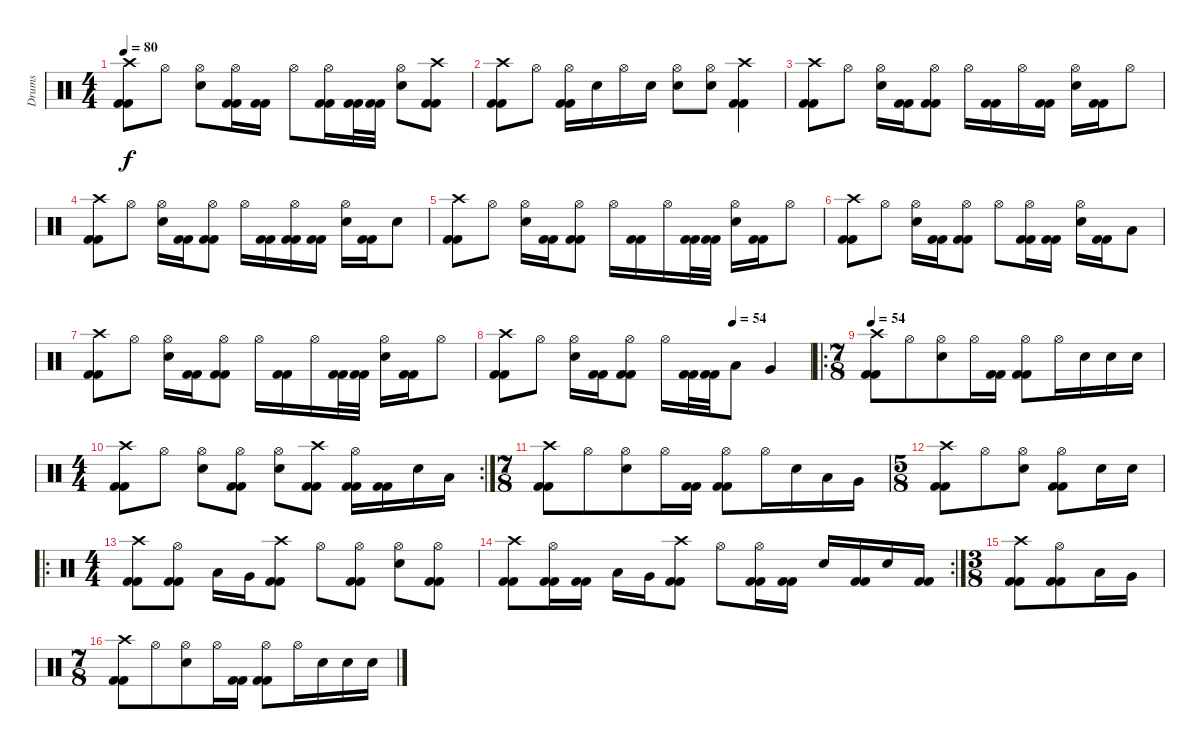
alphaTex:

\track ("Drums" "Drums") {instrument percussion}
\staff {score}
\articulation defaults
\ts (4 4)
\tempo 80
\clef neutral
\ks c
("Kick (hit) 2" "Kick (hit) 2" "Crash high (hit)").8{dy f} "Hi-Hat (open)".8 ("Snare (hit) 2" "Hi-Hat (open)").8 ("Kick (hit) 2" "Kick (hit) 2" "Hi-Hat (open)").16 ("Kick (hit) 2" "Kick (hit) 2").16 "Hi-Hat (open)".8 ("Kick (hit) 2" "Kick (hit) 2" "Hi-Hat (open)").16 ("Kick (hit) 2" "Kick (hit) 2").32 ("Kick (hit) 2" "Kick (hit) 2").32 ("Snare (hit) 2" "Hi-Hat (open)").8 ("Kick (hit) 2" "Kick (hit) 2" "Crash high (hit)").8 |
("Kick (hit) 2" "Kick (hit) 2" "Crash high (hit)").8 "Hi-Hat (open)".8 ("Kick (hit) 2" "Kick (hit) 2" "Hi-Hat (open)").16 "Snare (hit) 2".16 "Hi-Hat (open)".16 "Snare (hit) 2".16 ("Snare (hit) 2" "Hi-Hat (open)").8 ("Snare (hit) 2" "Hi-Hat (open)").8 ("Kick (hit) 2" "Kick (hit) 2" "Crash high (hit)").4 |
("Kick (hit) 2" "Kick (hit) 2" "Crash high (hit)").8 "Hi-Hat (open)".8 ("Snare (hit) 2" "Hi-Hat (open)").16 ("Kick (hit) 2" "Kick (hit) 2").16 ("Kick (hit) 2" "Kick (hit) 2" "Hi-Hat (open)").8 "Hi-Hat (open)".16 ("Kick (hit) 2" "Kick (hit) 2").16 "Hi-Hat (open)".16 ("Kick (hit) 2" "Kick (hit) 2").16 ("Snare (hit) 2" "Hi-Hat (open)").16 ("Kick (hit) 2" "Kick (hit) 2").16 "Hi-Hat (open)".8 |
("Kick (hit) 2" "Kick (hit) 2" "Crash high (hit)").8 "Hi-Hat (open)".8 ("Snare (hit) 2" "Hi-Hat (open)").16 ("Kick (hit) 2" "Kick (hit) 2").16 ("Kick (hit) 2" "Kick (hit) 2" "Hi-Hat (open)").8 "Hi-Hat (open)".16 ("Kick (hit) 2" "Kick (hit) 2").16 ("Kick (hit) 2" "Kick (hit) 2" "Hi-Hat (open)").16 ("Kick (hit) 2" "Kick (hit) 2").16 ("Snare (hit) 2" "Hi-Hat (open)").16 ("Kick (hit) 2" "Kick (hit) 2").16 "Snare (hit) 2".8 |
("Kick (hit) 2" "Kick (hit) 2" "Crash high (hit)").8 "Hi-Hat (open)".8 ("Snare (hit) 2" "Hi-Hat (open)").16 ("Kick (hit) 2" "Kick (hit) 2").16 ("Kick (hit) 2" "Kick (hit) 2" "Hi-Hat (open)").8 "Hi-Hat (open)".16 ("Kick (hit) 2" "Kick (hit) 2").16 "Hi-Hat (open)".16 ("Kick (hit) 2" "Kick (hit) 2").32 ("Kick (hit) 2" "Kick (hit) 2").32 ("Snare (hit) 2" "Hi-Hat (open)").16 ("Kick (hit) 2" "Kick (hit) 2").16 "Hi-Hat (open)".8 |
("Kick (hit) 2" "Kick (hit) 2" "Crash high (hit)").8 "Hi-Hat (open)".8 ("Snare (hit) 2" "Hi-Hat (open)").16 ("Kick (hit) 2" "Kick (hit) 2").16 ("Kick (hit) 2" "Kick (hit) 2" "Hi-Hat (open)").8 "Hi-Hat (open)".8 ("Kick (hit) 2" "Kick (hit) 2" "Hi-Hat (open)").16 ("Kick (hit) 2" "Kick (hit) 2").16 ("Snare (hit) 2" "Hi-Hat (open)").16 ("Kick (hit) 2" "Kick (hit) 2").16 "Low Tom (hit)".8 |
("Kick (hit) 2" "Kick (hit) 2" "Crash high (hit)").8 "Hi-Hat (open)".8 ("Snare (hit) 2" "Hi-Hat (open)").16 ("Kick (hit) 2" "Kick (hit) 2").16 ("Kick (hit) 2" "Kick (hit) 2" "Hi-Hat (open)").8 "Hi-Hat (open)".16 ("Kick (hit) 2" "Kick (hit) 2").16 "Hi-Hat (open)".16 ("Kick (hit) 2" "Kick (hit) 2").32 ("Kick (hit) 2" "Kick (hit) 2").32 ("Snare (hit) 2" "Hi-Hat (open)").16 ("Kick (hit) 2" "Kick (hit) 2").16 "Hi-Hat (open)".8 |
\tempo (54 0.75)
("Kick (hit) 2" "Kick (hit) 2" "Crash high (hit)").8 "Hi-Hat (open)".8 ("Snare (hit) 2" "Hi-Hat (open)").16 ("Kick (hit) 2" "Kick (hit) 2").16 ("Kick (hit) 2" "Kick (hit) 2" "Hi-Hat (open)").8 "Hi-Hat (open)".16 ("Kick (hit) 2" "Kick (hit) 2").32 ("Kick (hit) 2" "Kick (hit) 2").32 "Low Tom (hit)".8 "Very Low Tom (hit)".4 |
\ro
\ts (7 8)
\tempo 54
("Kick (hit) 2" "Kick (hit) 2" "Crash high (hit)").8 "Hi-Hat (open)".8 ("Snare (hit) 2" "Hi-Hat (open)").8 "Hi-Hat (open)".16 ("Kick (hit) 2" "Kick (hit) 2").16 ("Kick (hit) 2" "Kick (hit) 2" "Hi-Hat (open)").8 "Hi-Hat (open)".16 "Snare (hit) 2".16 "Snare (hit) 2".16 "Snare (hit) 2".16 |
\rc 2
\ts (4 4)
("Kick (hit) 2" "Kick (hit) 2" "Crash high (hit)").8 "Hi-Hat (open)".8 ("Snare (hit) 2" "Hi-Hat (open)").8 ("Kick (hit) 2" "Kick (hit) 2" "Hi-Hat (open)").8 ("Snare (hit) 2" "Hi-Hat (open)").8 ("Kick (hit) 2" "Kick (hit) 2" "Crash high (hit)").8 ("Kick (hit) 2" "Kick (hit) 2" "Hi-Hat (open)").16 ("Kick (hit) 2" "Kick (hit) 2").16 "Snare (hit) 2".16 "Low Tom (hit)".16 |
\ts (7 8)
("Kick (hit) 2" "Kick (hit) 2" "Crash high (hit)").8 "Hi-Hat (open)".8 ("Snare (hit) 2" "Hi-Hat (open)").8 "Hi-Hat (open)".16 ("Kick (hit) 2" "Kick (hit) 2").16 ("Kick (hit) 2" "Kick (hit) 2" "Hi-Hat (open)").8 "Hi-Hat (open)".16 "Snare (hit) 2".16 "Low Tom (hit)".16 "Very Low Tom (hit)".16 |
\ts (5 8)
("Kick (hit) 2" "Kick (hit) 2" "Crash high (hit)").8 "Hi-Hat (open)".8 ("Snare (hit) 2" "Hi-Hat (open)").8 ("Kick (hit) 2" "Kick (hit) 2" "Hi-Hat (open)").8 "Snare (hit) 2".16 "Snare (hit) 2".16 |
\ro
\ts (4 4)
("Kick (hit) 2" "Kick (hit) 2" "Crash high (hit)").8 ("Kick (hit) 2" "Kick (hit) 2" "Hi-Hat (open)").8 "Low Tom (hit)".16 "Very Low Tom (hit)".16 ("Kick (hit) 2" "Kick (hit) 2" "Crash high (hit)").8 "Hi-Hat (open)".8 ("Kick (hit) 2" "Kick (hit) 2" "Hi-Hat (open)").8 ("Snare (hit) 2" "Hi-Hat (open)").8 ("Kick (hit) 2" "Kick (hit) 2" "Hi-Hat (open)").8 |
\rc 2
("Kick (hit) 2" "Kick (hit) 2" "Crash high (hit)").8 ("Kick (hit) 2" "Kick (hit) 2" "Hi-Hat (open)").16 ("Kick (hit) 2" "Kick (hit) 2").16 "Low Tom (hit)".16 "Very Low Tom (hit)".16 ("Kick (hit) 2" "Kick (hit) 2" "Crash high (hit)").8 "Hi-Hat (open)".8 ("Kick (hit) 2" "Kick (hit) 2" "Hi-Hat (open)").16 ("Kick (hit) 2" "Kick (hit) 2").16 "Snare (hit) 2".16 ("Kick (hit) 2" "Kick (hit) 2").16 "Snare (hit) 2".16 ("Kick (hit) 2" "Kick (hit) 2").16 |
\ts (3 8)
("Kick (hit) 2" "Kick (hit) 2" "Crash high (hit)").8 ("Kick (hit) 2" "Kick (hit) 2" "Hi-Hat (open)").8 "Low Tom (hit)".16 "Very Low Tom (hit)".16 |
\ts (7 8)
("Kick (hit) 2" "Kick (hit) 2" "Crash high (hit)").8 "Hi-Hat (open)".8 ("Snare (hit) 2" "Hi-Hat (open)").8 "Hi-Hat (open)".16 ("Kick (hit) 2" "Kick (hit) 2").16 ("Kick (hit) 2" "Kick (hit) 2" "Hi-Hat (open)").8 "Hi-Hat (open)".16 "Snare (hit) 2".16 "Snare (hit) 2".16 "Snare (hit) 2".16
